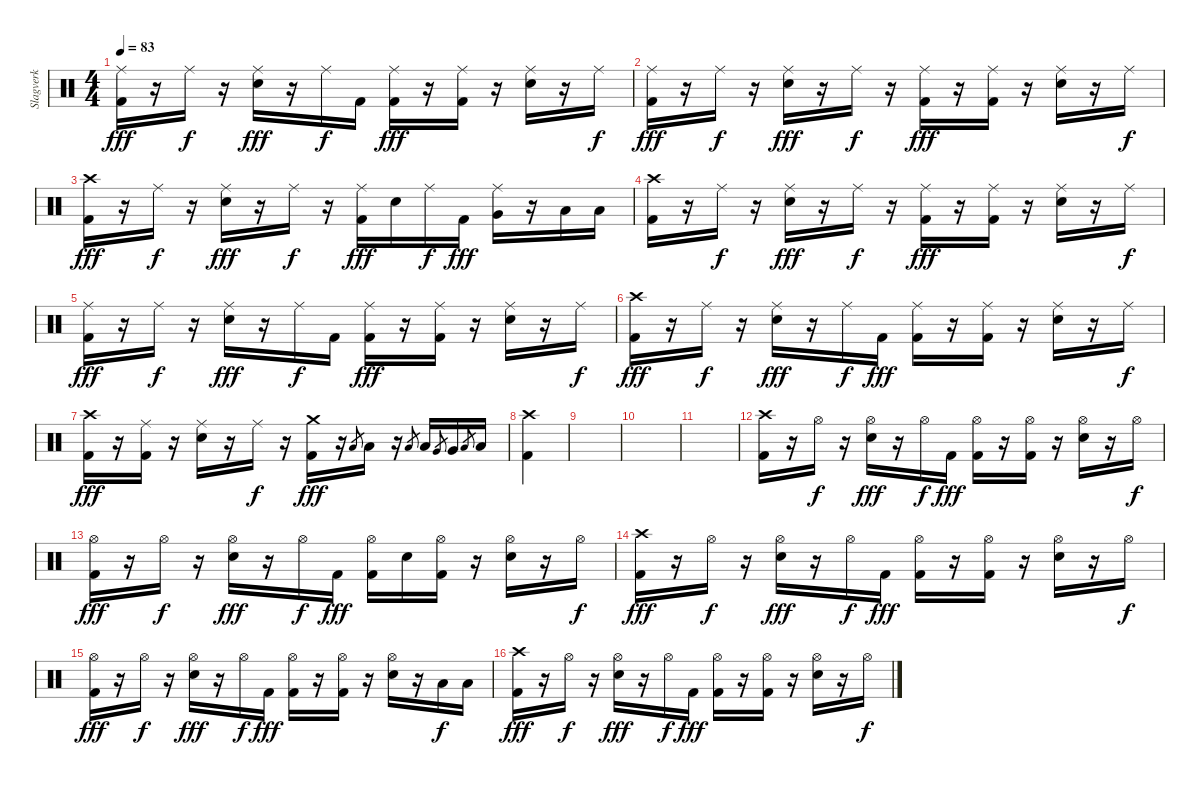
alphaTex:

\track ("Slagverk" "Slagverk") {instrument percussion}
\staff {score}
\articulation defaults
\ts (4 4)
\tempo 83
\clef neutral
\ks c
("Ride (middle)" "Kick (hit) 2").16{dy fff} r.16 "Ride (middle)".16{dy f} r.16 ("Ride (middle)" "Electric Snare (hit)").16{dy fff} r.16 "Ride (middle)".16{dy f} "Kick (hit) 2".16 ("Ride (middle)" "Kick (hit) 2").16{dy fff} r.16 ("Ride (middle)" "Kick (hit) 2").16 r.16 ("Ride (middle)" "Electric Snare (hit)").16 r.16 "Ride (middle)".16{dy f} |
("Ride (middle)" "Kick (hit) 2").16{dy fff} r.16 "Ride (middle)".16{dy f} r.16 ("Ride (middle)" "Electric Snare (hit)").16{dy fff} r.16 "Ride (middle)".16{dy f} r.16 ("Ride (middle)" "Kick (hit) 2").16{dy fff} r.16 ("Ride (middle)" "Kick (hit) 2").16 r.16 ("Ride (middle)" "Electric Snare (hit)").16 r.16 "Ride (middle)".16{dy f} |
("Crash high (hit)" "Kick (hit) 2").16{dy fff} r.16 "Ride (middle)".16{dy f} r.16 ("Ride (middle)" "Electric Snare (hit)").16{dy fff} r.16 "Ride (middle)".16{dy f} r.16 ("Ride (middle)" "Kick (hit) 2").16{dy fff} "Electric Snare (hit)".16 "Ride (middle)".16{dy f} "Kick (hit) 2".16{dy fff} ("Ride (middle)" "Very Low Tom (hit)").16 r.16 "Low Floor Tom (hit)".16 "Low Floor Tom (hit)".16 |
("Crash high (hit)" "Kick (hit) 2").16 r.16 "Ride (middle)".16{dy f} r.16 ("Ride (middle)" "Electric Snare (hit)").16{dy fff} r.16 "Ride (middle)".16{dy f} r.16 ("Ride (middle)" "Kick (hit) 2").16{dy fff} r.16 ("Ride (middle)" "Kick (hit) 2").16 r.16 ("Ride (middle)" "Electric Snare (hit)").16 r.16 "Ride (middle)".16{dy f} |
("Ride (middle)" "Kick (hit) 2").16{dy fff} r.16 "Ride (middle)".16{dy f} r.16 ("Ride (middle)" "Electric Snare (hit)").16{dy fff} r.16 "Ride (middle)".16{dy f} "Kick (hit) 2".16 ("Ride (middle)" "Kick (hit) 2").16{dy fff} r.16 ("Ride (middle)" "Kick (hit) 2").16 r.16 ("Ride (middle)" "Electric Snare (hit)").16 r.16 "Ride (middle)".16{dy f} |
("Crash high (hit)" "Kick (hit) 2").16{dy fff} r.16 "Ride (middle)".16{dy f} r.16 ("Ride (middle)" "Electric Snare (hit)").16{dy fff} r.16 "Ride (middle)".16{dy f} "Kick (hit) 2".16{dy fff} ("Ride (middle)" "Kick (hit) 2").16 r.16 ("Ride (middle)" "Kick (hit) 2").16 r.16 ("Ride (middle)" "Electric Snare (hit)").16 r.16 "Ride (middle)".16{dy f} |
("Crash high (hit)" "Kick (hit) 2").16{dy fff} r.16 ("Ride (middle)" "Kick (hit) 2").16 r.16 ("Ride (middle)" "Electric Snare (hit)").16 r.16 "Ride (middle)".16{dy f} r.16 ("Crash medium (hit)" "Kick (hit) 2").16{dy fff} r.16 "Low Tom (hit)".8{gr} "Low Tom (hit)".16 r.16 "Low Tom (hit)".8{gr} "Low Tom (hit)".16 "Very Low Tom (hit)".8{gr} "Very Low Tom (hit)".16 "Low Floor Tom (hit)".8{gr} "Low Floor Tom (hit)".16 |
("Crash high (hit)" "Kick (hit) 2").4 |
|
|
|
("Crash high (hit)" "Kick (hit) 2").16 r.16 "Hi-Hat (open)".16{dy f} r.16 ("Hi-Hat (open)" "Electric Snare (hit)").16{dy fff} r.16 "Hi-Hat (open)".16{dy f} "Kick (hit) 2".16{dy fff} ("Hi-Hat (open)" "Kick (hit) 2").16 r.16 ("Hi-Hat (open)" "Kick (hit) 2").16 r.16 ("Hi-Hat (open)" "Electric Snare (hit)").16 r.16 "Hi-Hat (open)".16{dy f} |
("Hi-Hat (open)" "Kick (hit) 2").16{dy fff} r.16 "Hi-Hat (open)".16{dy f} r.16 ("Hi-Hat (open)" "Electric Snare (hit)").16{dy fff} r.16 "Hi-Hat (open)".16{dy f} "Kick (hit) 2".16{dy fff} ("Hi-Hat (open)" "Kick (hit) 2").16 "Electric Snare (hit)".16 ("Hi-Hat (open)" "Kick (hit) 2").16 r.16 ("Hi-Hat (open)" "Electric Snare (hit)").16 r.16 "Hi-Hat (open)".16{dy f} |
("Crash high (hit)" "Kick (hit) 2").16{dy fff} r.16 "Hi-Hat (open)".16{dy f} r.16 ("Hi-Hat (open)" "Electric Snare (hit)").16{dy fff} r.16 "Hi-Hat (open)".16{dy f} "Kick (hit) 2".16{dy fff} ("Hi-Hat (open)" "Kick (hit) 2").16 r.16 ("Hi-Hat (open)" "Kick (hit) 2").16 r.16 ("Hi-Hat (open)" "Electric Snare (hit)").16 r.16 "Hi-Hat (open)".16{dy f} |
("Hi-Hat (open)" "Kick (hit) 2").16{dy fff} r.16 "Hi-Hat (open)".16{dy f} r.16 ("Hi-Hat (open)" "Electric Snare (hit)").16{dy fff} r.16 "Hi-Hat (open)".16{dy f} "Kick (hit) 2".16{dy fff} ("Hi-Hat (open)" "Kick (hit) 2").16 r.16 ("Hi-Hat (open)" "Kick (hit) 2").16 r.16 ("Hi-Hat (open)" "Electric Snare (hit)").16 r.16 "Low Tom (hit)".16{dy f} "Low Tom (hit)".16 |
("Crash high (hit)" "Kick (hit) 2").16{dy fff} r.16 "Hi-Hat (open)".16{dy f} r.16 ("Hi-Hat (open)" "Electric Snare (hit)").16{dy fff} r.16 "Hi-Hat (open)".16{dy f} "Kick (hit) 2".16{dy fff} ("Hi-Hat (open)" "Kick (hit) 2").16 r.16 ("Hi-Hat (open)" "Kick (hit) 2").16 r.16 ("Hi-Hat (open)" "Electric Snare (hit)").16 r.16 "Hi-Hat (open)".16{dy f}
